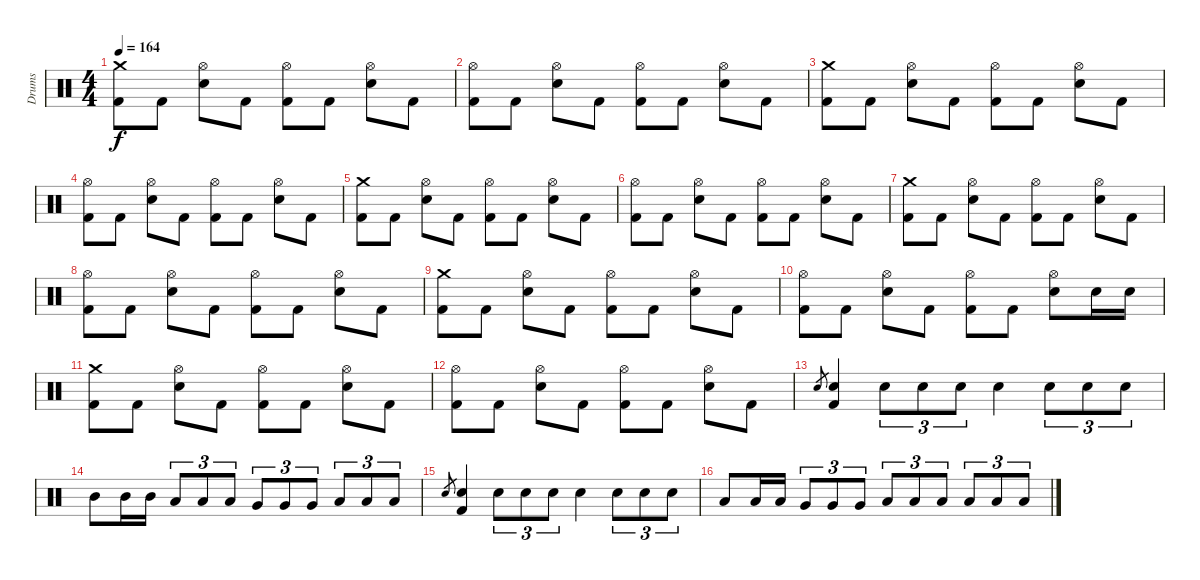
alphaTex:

\track ("Drums" "Drums") {instrument percussion}
\staff {score}
\articulation defaults
\ts (4 4)
\tempo 164
\clef neutral
\ks c
("Crash medium (hit)" "Kick (hit) 2").8{dy f} "Kick (hit) 2".8 ("Hi-Hat (open)" "Electric Snare (hit)").8 "Kick (hit) 2".8 ("Hi-Hat (open)" "Kick (hit) 2").8 "Kick (hit) 2".8 ("Hi-Hat (open)" "Electric Snare (hit)").8 "Kick (hit) 2".8 |
("Hi-Hat (open)" "Kick (hit) 2").8 "Kick (hit) 2".8 ("Hi-Hat (open)" "Electric Snare (hit)").8 "Kick (hit) 2".8 ("Hi-Hat (open)" "Kick (hit) 2").8 "Kick (hit) 2".8 ("Hi-Hat (open)" "Electric Snare (hit)").8 "Kick (hit) 2".8 |
("Crash medium (hit)" "Kick (hit) 2").8 "Kick (hit) 2".8 ("Hi-Hat (open)" "Electric Snare (hit)").8 "Kick (hit) 2".8 ("Hi-Hat (open)" "Kick (hit) 2").8 "Kick (hit) 2".8 ("Hi-Hat (open)" "Electric Snare (hit)").8 "Kick (hit) 2".8 |
("Hi-Hat (open)" "Kick (hit) 2").8 "Kick (hit) 2".8 ("Hi-Hat (open)" "Electric Snare (hit)").8 "Kick (hit) 2".8 ("Hi-Hat (open)" "Kick (hit) 2").8 "Kick (hit) 2".8 ("Hi-Hat (open)" "Electric Snare (hit)").8 "Kick (hit) 2".8 |
("Crash medium (hit)" "Kick (hit) 2").8 "Kick (hit) 2".8 ("Hi-Hat (open)" "Electric Snare (hit)").8 "Kick (hit) 2".8 ("Hi-Hat (open)" "Kick (hit) 2").8 "Kick (hit) 2".8 ("Hi-Hat (open)" "Electric Snare (hit)").8 "Kick (hit) 2".8 |
("Hi-Hat (open)" "Kick (hit) 2").8 "Kick (hit) 2".8 ("Hi-Hat (open)" "Electric Snare (hit)").8 "Kick (hit) 2".8 ("Hi-Hat (open)" "Kick (hit) 2").8 "Kick (hit) 2".8 ("Hi-Hat (open)" "Electric Snare (hit)").8 "Kick (hit) 2".8 |
("Crash medium (hit)" "Kick (hit) 2").8 "Kick (hit) 2".8 ("Hi-Hat (open)" "Electric Snare (hit)").8 "Kick (hit) 2".8 ("Hi-Hat (open)" "Kick (hit) 2").8 "Kick (hit) 2".8 ("Hi-Hat (open)" "Electric Snare (hit)").8 "Kick (hit) 2".8 |
("Hi-Hat (open)" "Kick (hit) 2").8 "Kick (hit) 2".8 ("Hi-Hat (open)" "Electric Snare (hit)").8 "Kick (hit) 2".8 ("Hi-Hat (open)" "Kick (hit) 2").8 "Kick (hit) 2".8 ("Hi-Hat (open)" "Electric Snare (hit)").8 "Kick (hit) 2".8 |
("Crash medium (hit)" "Kick (hit) 2").8 "Kick (hit) 2".8 ("Hi-Hat (open)" "Electric Snare (hit)").8 "Kick (hit) 2".8 ("Hi-Hat (open)" "Kick (hit) 2").8 "Kick (hit) 2".8 ("Hi-Hat (open)" "Electric Snare (hit)").8 "Kick (hit) 2".8 |
("Hi-Hat (open)" "Kick (hit) 2").8 "Kick (hit) 2".8 ("Hi-Hat (open)" "Electric Snare (hit)").8 "Kick (hit) 2".8 ("Hi-Hat (open)" "Kick (hit) 2").8 "Kick (hit) 2".8 ("Hi-Hat (open)" "Electric Snare (hit)").8 "Electric Snare (hit)".16 "Electric Snare (hit)".16 |
("Crash medium (hit)" "Kick (hit) 2").8 "Kick (hit) 2".8 ("Hi-Hat (open)" "Electric Snare (hit)").8 "Kick (hit) 2".8 ("Hi-Hat (open)" "Kick (hit) 2").8 "Kick (hit) 2".8 ("Hi-Hat (open)" "Electric Snare (hit)").8 "Kick (hit) 2".8 |
("Hi-Hat (open)" "Kick (hit) 2").8 "Kick (hit) 2".8 ("Hi-Hat (open)" "Electric Snare (hit)").8 "Kick (hit) 2".8 ("Hi-Hat (open)" "Kick (hit) 2").8 "Kick (hit) 2".8 ("Hi-Hat (open)" "Electric Snare (hit)").8 "Kick (hit) 2".8 |
"Electric Snare (hit)".8{gr} ("Electric Snare (hit)" "Kick (hit) 2").4 "Electric Snare (hit)".8{tu (3 2)} "Electric Snare (hit)".8{tu (3 2)} "Electric Snare (hit)".8{tu (3 2)} "Electric Snare (hit)".4 "Electric Snare (hit)".8{tu (3 2)} "Electric Snare (hit)".8{tu (3 2)} "Electric Snare (hit)".8{tu (3 2)} |
"Mid Tom (hit)".8 "Mid Tom (hit)".16 "Mid Tom (hit)".16 "Low Tom (hit)".8{tu (3 2)} "Low Tom (hit)".8{tu (3 2)} "Low Tom (hit)".8{tu (3 2)} "Very Low Tom (hit)".8{tu (3 2)} "Very Low Tom (hit)".8{tu (3 2)} "Very Low Tom (hit)".8{tu (3 2)} "Low Floor Tom (hit)".8{tu (3 2)} "Low Floor Tom (hit)".8{tu (3 2)} "Low Floor Tom (hit)".8{tu (3 2)} |
"Electric Snare (hit)".8{gr} ("Electric Snare (hit)" "Kick (hit) 2").4 "Electric Snare (hit)".8{tu (3 2)} "Electric Snare (hit)".8{tu (3 2)} "Electric Snare (hit)".8{tu (3 2)} "Electric Snare (hit)".4 "Electric Snare (hit)".8{tu (3 2)} "Electric Snare (hit)".8{tu (3 2)} "Electric Snare (hit)".8{tu (3 2)} |
"Low Tom (hit)".8 "Low Tom (hit)".16 "Low Tom (hit)".16 "Very Low Tom (hit)".8{tu (3 2)} "Very Low Tom (hit)".8{tu (3 2)} "Very Low Tom (hit)".8{tu (3 2)} "Low Floor Tom (hit)".8{tu (3 2)} "Low Floor Tom (hit)".8{tu (3 2)} "Low Floor Tom (hit)".8{tu (3 2)} "Low Floor Tom (hit)".8{tu (3 2)} "Low Floor Tom (hit)".8{tu (3 2)} "Low Floor Tom (hit)".8{tu (3 2)}
